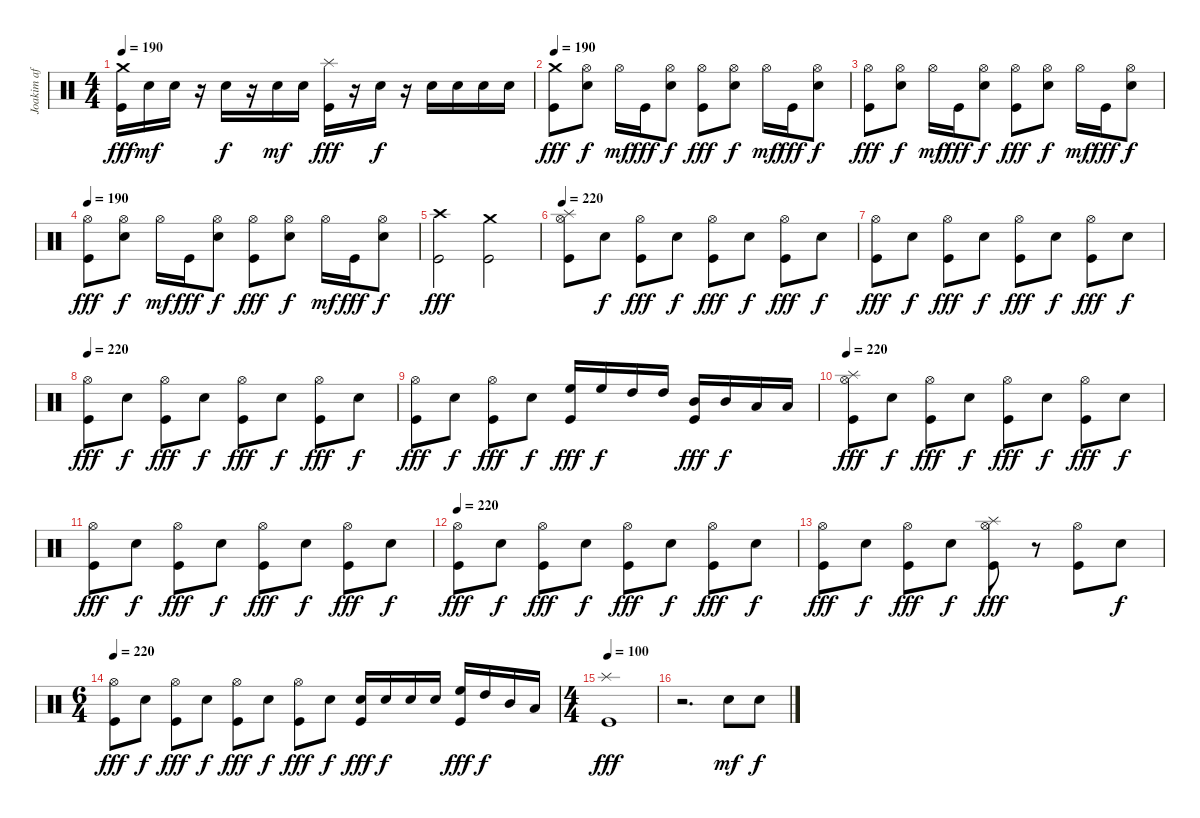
\track ("Joakim af Grave" "Joakim af ") {instrument percussion}
\staff {score}
\articulation defaults
\ts (4 4)
\tempo 190
\clef neutral
\ks c
("Crash medium (hit)" "Kick (hit)").16{dy fff} "Electric Snare (hit)".16{dy mf} "Electric Snare (hit)".16 r.16 "Electric Snare (hit)".16{dy f} r.16 "Electric Snare (hit)".16{dy mf} "Electric Snare (hit)".16 ("Splash (hit)" "Kick (hit)").16{dy fff} r.16 "Electric Snare (hit)".16{dy f} r.16 "Electric Snare (hit)".16 "Electric Snare (hit)".16 "Electric Snare (hit)".16 "Electric Snare (hit)".16 |
\tempo 190
("Crash medium (hit)" "Kick (hit)").8{dy fff} ("Hi-Hat (open)" "Electric Snare (hit)").8{dy f} "Hi-Hat (open)".16{dy mf} "Kick (hit)".16{dy fff} ("Hi-Hat (open)" "Electric Snare (hit)").8{dy f} ("Hi-Hat (open)" "Kick (hit)").8{dy fff} ("Hi-Hat (open)" "Electric Snare (hit)").8{dy f} "Hi-Hat (open)".16{dy mf} "Kick (hit)".16{dy fff} ("Hi-Hat (open)" "Electric Snare (hit)").8{dy f} |
("Hi-Hat (open)" "Kick (hit)").8{dy fff} ("Hi-Hat (open)" "Electric Snare (hit)").8{dy f} "Hi-Hat (open)".16{dy mf} "Kick (hit)".16{dy fff} ("Hi-Hat (open)" "Electric Snare (hit)").8{dy f} ("Hi-Hat (open)" "Kick (hit)").8{dy fff} ("Hi-Hat (open)" "Electric Snare (hit)").8{dy f} "Hi-Hat (open)".16{dy mf} "Kick (hit)".16{dy fff} ("Hi-Hat (open)" "Electric Snare (hit)").8{dy f} |
\tempo 190
("Hi-Hat (open)" "Kick (hit)").8{dy fff} ("Hi-Hat (open)" "Electric Snare (hit)").8{dy f} "Hi-Hat (open)".16{dy mf} "Kick (hit)".16{dy fff} ("Hi-Hat (open)" "Electric Snare (hit)").8{dy f} ("Hi-Hat (open)" "Kick (hit)").8{dy fff} ("Hi-Hat (open)" "Electric Snare (hit)").8{dy f} "Hi-Hat (open)".16{dy mf} "Kick (hit)".16{dy fff} ("Hi-Hat (open)" "Electric Snare (hit)").8{dy f} |
("Crash high (hit)" "Kick (hit)").2{dy fff} ("Crash medium (hit)" "Kick (hit)").2 |
\tempo 220
("Splash (hit)" "Hi-Hat (open)" "Kick (hit)").8 "Electric Snare (hit)".8{dy f} ("Hi-Hat (open)" "Kick (hit)").8{dy fff} "Electric Snare (hit)".8{dy f} ("Hi-Hat (open)" "Kick (hit)").8{dy fff} "Electric Snare (hit)".8{dy f} ("Hi-Hat (open)" "Kick (hit)").8{dy fff} "Electric Snare (hit)".8{dy f} |
("Hi-Hat (open)" "Kick (hit)").8{dy fff} "Electric Snare (hit)".8{dy f} ("Hi-Hat (open)" "Kick (hit)").8{dy fff} "Electric Snare (hit)".8{dy f} ("Hi-Hat (open)" "Kick (hit)").8{dy fff} "Electric Snare (hit)".8{dy f} ("Hi-Hat (open)" "Kick (hit)").8{dy fff} "Electric Snare (hit)".8{dy f} |
\tempo 220
("Hi-Hat (open)" "Kick (hit)").8{dy fff} "Electric Snare (hit)".8{dy f} ("Hi-Hat (open)" "Kick (hit)").8{dy fff} "Electric Snare (hit)".8{dy f} ("Hi-Hat (open)" "Kick (hit)").8{dy fff} "Electric Snare (hit)".8{dy f} ("Hi-Hat (open)" "Kick (hit)").8{dy fff} "Electric Snare (hit)".8{dy f} |
("Hi-Hat (open)" "Kick (hit)").8{dy fff} "Electric Snare (hit)".8{dy f} ("Hi-Hat (open)" "Kick (hit)").8{dy fff} "Electric Snare (hit)".8{dy f} ("High Floor Tom (hit)" "Kick (hit)").16{dy fff} "High Floor Tom (hit)".16{dy f} "High Tom (hit)".16 "High Tom (hit)".16 ("Mid Tom (hit)" "Kick (hit)").16{dy fff} "Mid Tom (hit)".16{dy f} "Low Tom (hit)".16 "Low Tom (hit)".16 |
\tempo 220
("Splash (hit)" "Hi-Hat (open)" "Kick (hit)").8{dy fff} "Electric Snare (hit)".8{dy f} ("Hi-Hat (open)" "Kick (hit)").8{dy fff} "Electric Snare (hit)".8{dy f} ("Hi-Hat (open)" "Kick (hit)").8{dy fff} "Electric Snare (hit)".8{dy f} ("Hi-Hat (open)" "Kick (hit)").8{dy fff} "Electric Snare (hit)".8{dy f} |
("Hi-Hat (open)" "Kick (hit)").8{dy fff} "Electric Snare (hit)".8{dy f} ("Hi-Hat (open)" "Kick (hit)").8{dy fff} "Electric Snare (hit)".8{dy f} ("Hi-Hat (open)" "Kick (hit)").8{dy fff} "Electric Snare (hit)".8{dy f} ("Hi-Hat (open)" "Kick (hit)").8{dy fff} "Electric Snare (hit)".8{dy f} |
\tempo 220
("Hi-Hat (open)" "Kick (hit)").8{dy fff} "Electric Snare (hit)".8{dy f} ("Hi-Hat (open)" "Kick (hit)").8{dy fff} "Electric Snare (hit)".8{dy f} ("Hi-Hat (open)" "Kick (hit)").8{dy fff} "Electric Snare (hit)".8{dy f} ("Hi-Hat (open)" "Kick (hit)").8{dy fff} "Electric Snare (hit)".8{dy f} |
("Hi-Hat (open)" "Kick (hit)").8{dy fff} "Electric Snare (hit)".8{dy f} ("Hi-Hat (open)" "Kick (hit)").8{dy fff} "Electric Snare (hit)".8{dy f} ("Splash (hit)" "Hi-Hat (open)" "Kick (hit)").8{dy fff} r.8 ("Hi-Hat (open)" "Kick (hit)").8 "Electric Snare (hit)".8{dy f} |
\ts (6 4)
\tempo 220
("Hi-Hat (open)" "Kick (hit)").8{dy fff} "Electric Snare (hit)".8{dy f} ("Hi-Hat (open)" "Kick (hit)").8{dy fff} "Electric Snare (hit)".8{dy f} ("Hi-Hat (open)" "Kick (hit)").8{dy fff} "Electric Snare (hit)".8{dy f} ("Hi-Hat (open)" "Kick (hit)").8{dy fff} "Electric Snare (hit)".8{dy f} ("Kick (hit)" "Electric Snare (hit)").16{dy fff} "Electric Snare (hit)".16{dy f} "Electric Snare (hit)".16 "Electric Snare (hit)".16 ("Kick (hit)" "High Floor Tom (hit)").16{dy fff} "High Tom (hit)".16{dy f} "Mid Tom (hit)".16 "Low Tom (hit)".16 |
\ts (4 4)
\tempo 100
("Splash (hit)" "Kick (hit)").1{dy fff} |
r.2{d} "Electric Snare (hit)".8{dy mf} "Electric Snare (hit)".8{dy f}
